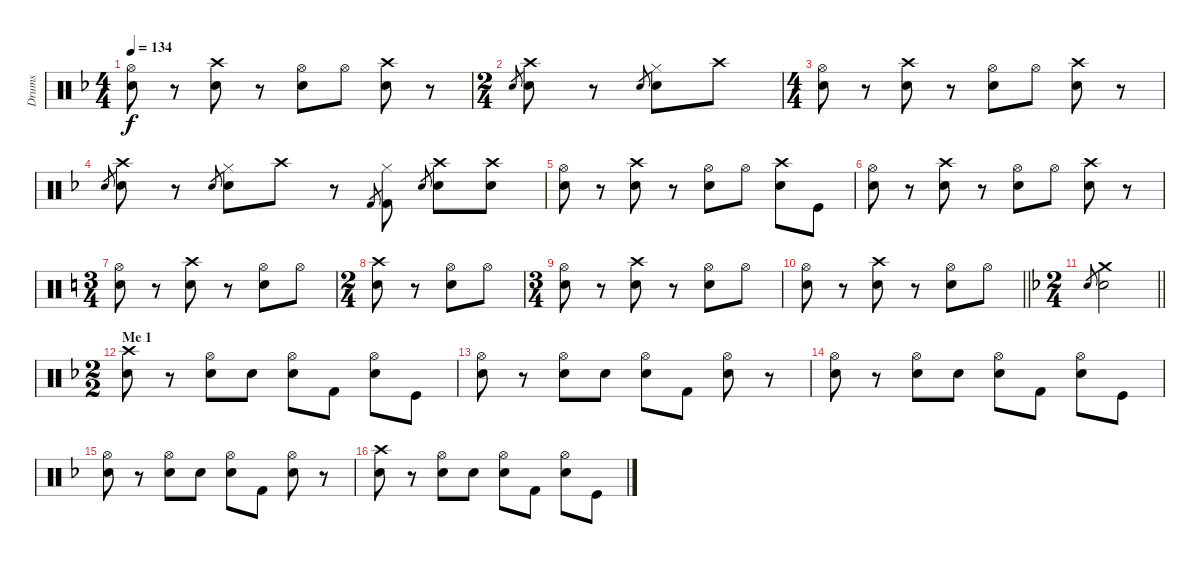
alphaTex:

\track ("Drums" "Drums") {instrument percussion}
\staff {score}
\articulation defaults
\ts (4 4)
\tempo 134
\clef neutral
\ks f
("Snare (hit) 2" "Hi-Hat (open)").8{dy f} r.8 ("Electric Snare (hit)" "Crash high (hit)").8 r.8 ("Snare (hit) 2" "Hi-Hat (open)").8 "Hi-Hat (open)".8 ("Electric Snare (hit)" "Crash high (hit)").8 r.8 |
\ts (2 4)
"Electric Snare (hit)".8{gr} ("Electric Snare (hit)" "Crash high (hit)").8 r.8 "Electric Snare (hit)".8{gr} ("Electric Snare (hit)" "Hi-Hat (closed)").8 "Crash high (hit)".8 |
\ts (4 4)
("Snare (hit) 2" "Hi-Hat (open)").8 r.8 ("Electric Snare (hit)" "Crash high (hit)").8 r.8 ("Snare (hit) 2" "Hi-Hat (open)").8 "Hi-Hat (open)".8 ("Electric Snare (hit)" "Crash high (hit)").8 r.8 |
"Electric Snare (hit)".8{gr} ("Electric Snare (hit)" "Crash high (hit)").8 r.8 "Electric Snare (hit)".8{gr} ("Electric Snare (hit)" "Hi-Hat (closed)").8 "Crash high (hit)".8 r.8 "Kick (hit) 2".8{gr} ("Kick (hit) 2" "Hi-Hat (closed)").8 "Electric Snare (hit)".8{gr} ("Electric Snare (hit)" "Crash high (hit)").8 ("Electric Snare (hit)" "Crash high (hit)").8 |
("Snare (hit) 2" "Hi-Hat (open)").8 r.8 ("Electric Snare (hit)" "Crash high (hit)").8 r.8 ("Snare (hit) 2" "Hi-Hat (open)").8 "Hi-Hat (open)".8 ("Electric Snare (hit)" "Crash high (hit)").8 "Kick (hit)".8 |
("Snare (hit) 2" "Hi-Hat (open)").8 r.8 ("Electric Snare (hit)" "Crash high (hit)").8 r.8 ("Snare (hit) 2" "Hi-Hat (open)").8 "Hi-Hat (open)".8 ("Electric Snare (hit)" "Crash high (hit)").8 r.8 |
\ts (3 4)
\ks c
("Snare (hit) 2" "Hi-Hat (open)").8 r.8 ("Electric Snare (hit)" "Crash high (hit)").8 r.8 ("Snare (hit) 2" "Hi-Hat (open)").8 "Hi-Hat (open)".8 |
\ts (2 4)
("Electric Snare (hit)" "Crash high (hit)").8 r.8 ("Snare (hit) 2" "Hi-Hat (open)").8 "Hi-Hat (open)".8 |
\ts (3 4)
("Snare (hit) 2" "Hi-Hat (open)").8 r.8 ("Electric Snare (hit)" "Crash high (hit)").8 r.8 ("Snare (hit) 2" "Hi-Hat (open)").8 "Hi-Hat (open)".8 |
\barLineRight lightlight
("Snare (hit) 2" "Hi-Hat (open)").8 r.8 ("Electric Snare (hit)" "Crash high (hit)").8 r.8 ("Snare (hit) 2" "Hi-Hat (open)").8 "Hi-Hat (open)".8 |
\ts (2 4)
\barLineRight lightlight
\ks f "Snare (hit) 2".8{gr}
("Snare (hit) 2" "Crash medium (hit)").2 |
\ts (2 2)
\section ("" "Me 1")
("Snare (hit) 2" "Crash high (hit)").8 r.8 ("Snare (hit) 2" "Hi-Hat (open)").8 "Electric Snare (hit)".8 ("Snare (hit) 2" "Hi-Hat (open)").8 "Kick (hit) 2".8 ("Snare (hit) 2" "Hi-Hat (open)").8 "Kick (hit)".8 |
("Snare (hit) 2" "Hi-Hat (open)").8 r.8 ("Snare (hit) 2" "Hi-Hat (open)").8 "Electric Snare (hit)".8 ("Snare (hit) 2" "Hi-Hat (open)").8 "Kick (hit) 2".8 ("Snare (hit) 2" "Hi-Hat (open)").8 r.8 |
("Snare (hit) 2" "Hi-Hat (open)").8 r.8 ("Snare (hit) 2" "Hi-Hat (open)").8 "Electric Snare (hit)".8 ("Snare (hit) 2" "Hi-Hat (open)").8 "Kick (hit) 2".8 ("Snare (hit) 2" "Hi-Hat (open)").8 "Kick (hit)".8 |
("Snare (hit) 2" "Hi-Hat (open)").8 r.8 ("Snare (hit) 2" "Hi-Hat (open)").8 "Electric Snare (hit)".8 ("Snare (hit) 2" "Hi-Hat (open)").8 "Kick (hit) 2".8 ("Snare (hit) 2" "Hi-Hat (open)").8 r.8 |
("Snare (hit) 2" "Crash high (hit)").8 r.8 ("Snare (hit) 2" "Hi-Hat (open)").8 "Electric Snare (hit)".8 ("Snare (hit) 2" "Hi-Hat (open)").8 "Kick (hit) 2".8 ("Snare (hit) 2" "Hi-Hat (open)").8 "Kick (hit)".8
